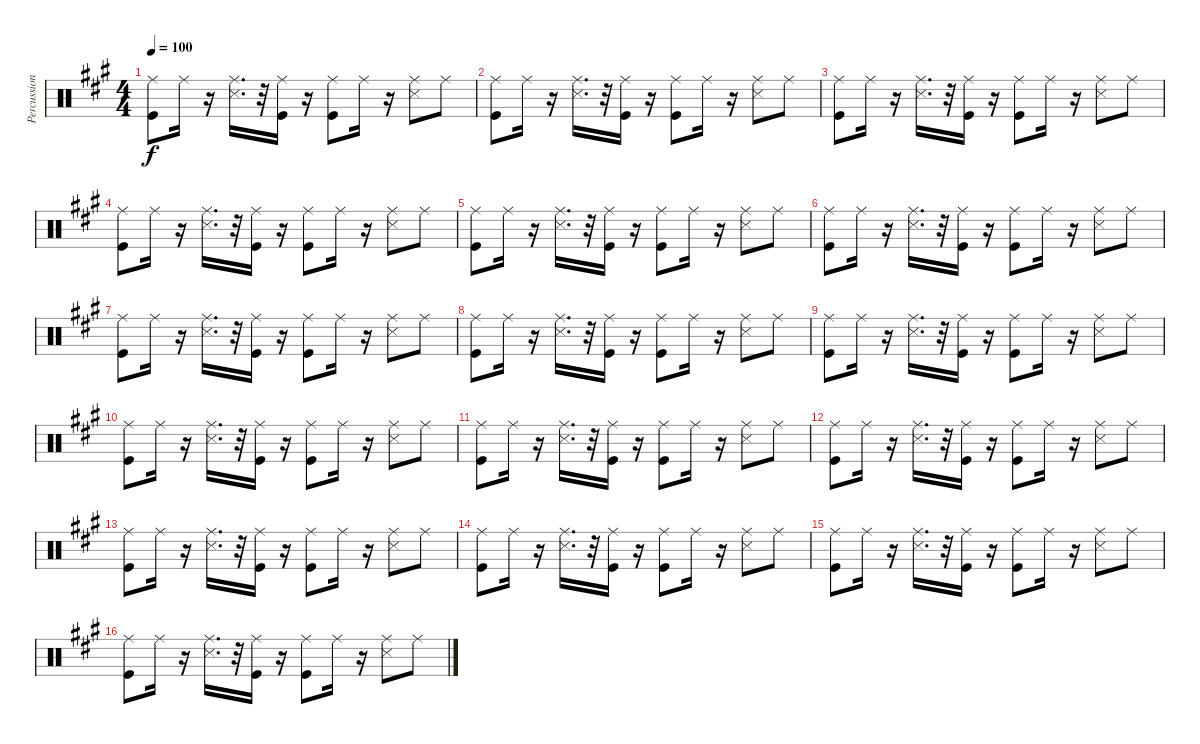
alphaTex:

\track ("Percussion" "Percussion") {instrument percussion}
\staff {score}
\articulation defaults
\ts (4 4)
\tempo 100
\clef neutral
\ks a
("Kick (hit)" "Ride (middle)").8{dy f} "Ride (middle)".16 r.16 ("Snare (side stick) 3" "Ride (middle)").16{d} r.32 ("Ride (middle)" "Kick (hit)").16 r.16 ("Ride (middle)" "Kick (hit)").8 "Ride (middle)".16 r.16 ("Snare (side stick) 3" "Ride (middle)").8 "Ride (middle)".8 |
("Kick (hit)" "Ride (middle)").8 "Ride (middle)".16 r.16 ("Snare (side stick) 3" "Ride (middle)").16{d} r.32 ("Ride (middle)" "Kick (hit)").16 r.16 ("Ride (middle)" "Kick (hit)").8 "Ride (middle)".16 r.16 ("Snare (side stick) 3" "Ride (middle)").8 "Ride (middle)".8 |
("Kick (hit)" "Ride (middle)").8 "Ride (middle)".16 r.16 ("Snare (side stick) 3" "Ride (middle)").16{d} r.32 ("Ride (middle)" "Kick (hit)").16 r.16 ("Ride (middle)" "Kick (hit)").8 "Ride (middle)".16 r.16 ("Snare (side stick) 3" "Ride (middle)").8 "Ride (middle)".8 |
("Kick (hit)" "Ride (middle)").8 "Ride (middle)".16 r.16 ("Snare (side stick) 3" "Ride (middle)").16{d} r.32 ("Ride (middle)" "Kick (hit)").16 r.16 ("Ride (middle)" "Kick (hit)").8 "Ride (middle)".16 r.16 ("Snare (side stick) 3" "Ride (middle)").8 "Ride (middle)".8 |
("Kick (hit)" "Ride (middle)").8 "Ride (middle)".16 r.16 ("Snare (side stick) 3" "Ride (middle)").16{d} r.32 ("Ride (middle)" "Kick (hit)").16 r.16 ("Ride (middle)" "Kick (hit)").8 "Ride (middle)".16 r.16 ("Snare (side stick) 3" "Ride (middle)").8 "Ride (middle)".8 |
("Kick (hit)" "Ride (middle)").8 "Ride (middle)".16 r.16 ("Snare (side stick) 3" "Ride (middle)").16{d} r.32 ("Ride (middle)" "Kick (hit)").16 r.16 ("Ride (middle)" "Kick (hit)").8 "Ride (middle)".16 r.16 ("Snare (side stick) 3" "Ride (middle)").8 "Ride (middle)".8 |
("Kick (hit)" "Ride (middle)").8 "Ride (middle)".16 r.16 ("Snare (side stick) 3" "Ride (middle)").16{d} r.32 ("Ride (middle)" "Kick (hit)").16 r.16 ("Ride (middle)" "Kick (hit)").8 "Ride (middle)".16 r.16 ("Snare (side stick) 3" "Ride (middle)").8 "Ride (middle)".8 |
("Kick (hit)" "Ride (middle)").8 "Ride (middle)".16 r.16 ("Snare (side stick) 3" "Ride (middle)").16{d} r.32 ("Ride (middle)" "Kick (hit)").16 r.16 ("Ride (middle)" "Kick (hit)").8 "Ride (middle)".16 r.16 ("Snare (side stick) 3" "Ride (middle)").8 "Ride (middle)".8 |
("Kick (hit)" "Ride (middle)").8 "Ride (middle)".16 r.16 ("Snare (side stick) 3" "Ride (middle)").16{d} r.32 ("Ride (middle)" "Kick (hit)").16 r.16 ("Ride (middle)" "Kick (hit)").8 "Ride (middle)".16 r.16 ("Snare (side stick) 3" "Ride (middle)").8 "Ride (middle)".8 |
("Kick (hit)" "Ride (middle)").8 "Ride (middle)".16 r.16 ("Snare (side stick) 3" "Ride (middle)").16{d} r.32 ("Ride (middle)" "Kick (hit)").16 r.16 ("Ride (middle)" "Kick (hit)").8 "Ride (middle)".16 r.16 ("Snare (side stick) 3" "Ride (middle)").8 "Ride (middle)".8 |
("Kick (hit)" "Ride (middle)").8 "Ride (middle)".16 r.16 ("Snare (side stick) 3" "Ride (middle)").16{d} r.32 ("Ride (middle)" "Kick (hit)").16 r.16 ("Ride (middle)" "Kick (hit)").8 "Ride (middle)".16 r.16 ("Snare (side stick) 3" "Ride (middle)").8 "Ride (middle)".8 |
("Kick (hit)" "Ride (middle)").8 "Ride (middle)".16 r.16 ("Snare (side stick) 3" "Ride (middle)").16{d} r.32 ("Ride (middle)" "Kick (hit)").16 r.16 ("Ride (middle)" "Kick (hit)").8 "Ride (middle)".16 r.16 ("Snare (side stick) 3" "Ride (middle)").8 "Ride (middle)".8 |
("Kick (hit)" "Ride (middle)").8 "Ride (middle)".16 r.16 ("Snare (side stick) 3" "Ride (middle)").16{d} r.32 ("Ride (middle)" "Kick (hit)").16 r.16 ("Ride (middle)" "Kick (hit)").8 "Ride (middle)".16 r.16 ("Snare (side stick) 3" "Ride (middle)").8 "Ride (middle)".8 |
("Kick (hit)" "Ride (middle)").8 "Ride (middle)".16 r.16 ("Snare (side stick) 3" "Ride (middle)").16{d} r.32 ("Ride (middle)" "Kick (hit)").16 r.16 ("Ride (middle)" "Kick (hit)").8 "Ride (middle)".16 r.16 ("Snare (side stick) 3" "Ride (middle)").8 "Ride (middle)".8 |
("Kick (hit)" "Ride (middle)").8 "Ride (middle)".16 r.16 ("Snare (side stick) 3" "Ride (middle)").16{d} r.32 ("Ride (middle)" "Kick (hit)").16 r.16 ("Ride (middle)" "Kick (hit)").8 "Ride (middle)".16 r.16 ("Snare (side stick) 3" "Ride (middle)").8 "Ride (middle)".8 |
("Kick (hit)" "Ride (middle)").8 "Ride (middle)".16 r.16 ("Snare (side stick) 3" "Ride (middle)").16{d} r.32 ("Ride (middle)" "Kick (hit)").16 r.16 ("Ride (middle)" "Kick (hit)").8 "Ride (middle)".16 r.16 ("Snare (side stick) 3" "Ride (middle)").8 "Ride (middle)".8
